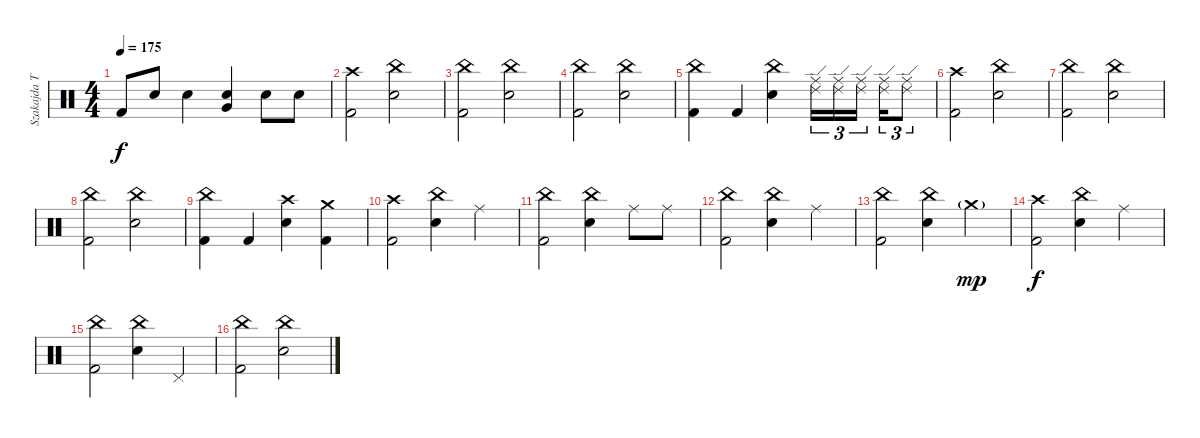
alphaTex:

\track ("Szakajda Tibi" "Szakajda T") {instrument percussion}
\staff {score}
\articulation defaults
\ts (4 4)
\tempo 175
\clef neutral
\ks c "Kick (hit) 2".8{dy f} "Snare (hit) 2".8 "Snare (hit) 2".4
("Very Low Tom (hit)" "Snare (hit) 2").4 "Snare (hit) 2".8 "Snare (hit) 2".8 |
("Crash high (hit)" "Kick (hit) 2").2 ("China (hit)" "Snare (hit) 2").2 |
("China (hit)" "Kick (hit) 2").2 ("China (hit)" "Snare (hit) 2").2 |
("China (hit)" "Kick (hit) 2").2 ("China (hit)" "Snare (hit) 2").2 |
("China (hit)" "Kick (hit) 2").4 "Kick (hit) 2".4 ("China (hit)" "Snare (hit) 2").4 ("Ride (middle)" "Ride (edge) 2").16{tu (3 2)} ("Ride (middle)" "Ride (edge) 2").16{tu (3 2)} ("Ride (middle)" "Ride (edge) 2").16{tu (3 2) beam splitsecondary} ("Ride (middle)" "Ride (edge) 2").16{tu (3 2)} ("Ride (middle)" "Ride (edge) 2").8{tu (3 2)} |
("Crash high (hit)" "Kick (hit) 2").2 ("China (hit)" "Snare (hit) 2").2 |
("China (hit)" "Kick (hit) 2").2 ("China (hit)" "Snare (hit) 2").2 |
("China (hit)" "Kick (hit) 2").2 ("China (hit)" "Snare (hit) 2").2 |
("China (hit)" "Kick (hit) 2").4 "Kick (hit) 2".4 ("Crash high (hit)" "Snare (hit) 2").4 ("Crash medium (hit)" "Kick (hit) 2").4 |
("Crash high (hit)" "Kick (hit) 2").2 ("China (hit)" "Snare (hit) 2").4 "Ride (middle)".4 |
("China (hit)" "Kick (hit) 2").2 ("China (hit)" "Snare (hit) 2").4 "Ride (middle)".8 "Ride (middle)".8 |
("China (hit)" "Kick (hit) 2").2 ("China (hit)" "Snare (hit) 2").4 "Ride (middle)".4 |
("China (hit)" "Kick (hit) 2").2 ("China (hit)" "Snare (hit) 2").4 "Crash medium (hit)"{g}.4{dy mp} |
("Crash high (hit)" "Kick (hit) 2").2{dy f} ("China (hit)" "Snare (hit) 2").4 "Ride (middle)".4 |
("China (hit)" "Kick (hit) 2").2 ("China (hit)" "Snare (hit) 2").4 "Pedal Hi-Hat (hit)".4 |
("China (hit)" "Kick (hit) 2").2 ("China (hit)" "Snare (hit) 2").2
